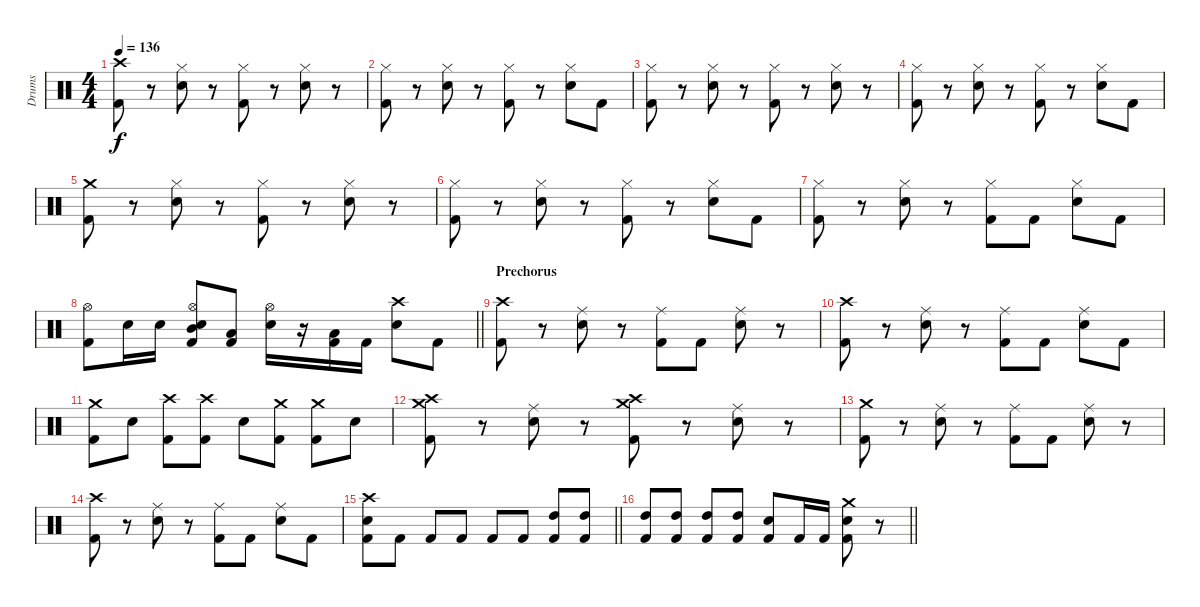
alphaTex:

\track ("Drums" "Drums") {instrument percussion}
\staff {score}
\articulation defaults
\ts (4 4)
\tempo 136
\clef neutral
\ks c
("Crash high (hit)" "Kick (hit) 2").8{dy f} r.8 ("Hi-Hat (closed)" "Electric Snare (hit)").8 r.8 ("Hi-Hat (closed)" "Kick (hit) 2").8 r.8 ("Hi-Hat (closed)" "Electric Snare (hit)").8 r.8 |
("Hi-Hat (closed)" "Kick (hit) 2").8 r.8 ("Hi-Hat (closed)" "Electric Snare (hit)").8 r.8 ("Hi-Hat (closed)" "Kick (hit) 2").8 r.8 ("Hi-Hat (closed)" "Electric Snare (hit)").8 "Kick (hit) 2".8 |
("Hi-Hat (closed)" "Kick (hit) 2").8 r.8 ("Hi-Hat (closed)" "Electric Snare (hit)").8 r.8 ("Hi-Hat (closed)" "Kick (hit) 2").8 r.8 ("Hi-Hat (closed)" "Electric Snare (hit)").8 r.8 |
("Hi-Hat (closed)" "Kick (hit) 2").8 r.8 ("Hi-Hat (closed)" "Electric Snare (hit)").8 r.8 ("Hi-Hat (closed)" "Kick (hit) 2").8 r.8 ("Hi-Hat (closed)" "Electric Snare (hit)").8 "Kick (hit) 2".8 |
("Crash medium (hit)" "Kick (hit) 2").8 r.8 ("Hi-Hat (closed)" "Electric Snare (hit)").8 r.8 ("Hi-Hat (closed)" "Kick (hit) 2").8 r.8 ("Hi-Hat (closed)" "Electric Snare (hit)").8 r.8 |
("Hi-Hat (closed)" "Kick (hit) 2").8 r.8 ("Hi-Hat (closed)" "Electric Snare (hit)").8 r.8 ("Hi-Hat (closed)" "Kick (hit) 2").8 r.8 ("Hi-Hat (closed)" "Electric Snare (hit)").8 "Kick (hit) 2".8 |
("Hi-Hat (closed)" "Kick (hit) 2").8 r.8 ("Hi-Hat (closed)" "Electric Snare (hit)").8 r.8 ("Hi-Hat (closed)" "Kick (hit) 2").8 "Kick (hit) 2".8 ("Hi-Hat (closed)" "Electric Snare (hit)").8 "Kick (hit) 2".8 |
\barLineRight lightlight
("Hi-Hat (open)" "Kick (hit) 2").8 "Electric Snare (hit)".16 "Electric Snare (hit)".16 ("Hi-Hat (open)" "Electric Snare (hit)" "Mid Tom (hit)" "Kick (hit) 2").8 ("Low Tom (hit)" "Kick (hit) 2").8 ("Hi-Hat (open)" "Electric Snare (hit)").16 r.16 ("Low Tom (hit)" "Kick (hit) 2").16 "Kick (hit) 2".16 ("Crash high (hit)" "Electric Snare (hit)").8 "Kick (hit) 2".8 |
\section ("" "Prechorus")
("Crash high (hit)" "Kick (hit) 2").8 r.8 ("Ride (middle)" "Electric Snare (hit)").8 r.8 ("Ride (middle)" "Kick (hit) 2").8 "Kick (hit) 2".8 ("Ride (middle)" "Electric Snare (hit)").8 r.8 |
("Crash high (hit)" "Kick (hit) 2").8 r.8 ("Ride (middle)" "Electric Snare (hit)").8 r.8 ("Ride (middle)" "Kick (hit) 2").8 "Kick (hit) 2".8 ("Ride (middle)" "Electric Snare (hit)").8 "Kick (hit) 2".8 |
("Crash medium (hit)" "Kick (hit) 2").8 "Electric Snare (hit)".8 ("Crash high (hit)" "Kick (hit) 2").8 ("Crash high (hit)" "Kick (hit) 2").8 "Electric Snare (hit)".8 ("Crash medium (hit)" "Kick (hit) 2").8 ("Crash medium (hit)" "Kick (hit) 2").8 "Electric Snare (hit)".8 |
("Crash high (hit)" "Crash medium (hit)" "Kick (hit) 2").8 r.8 ("Ride (middle)" "Electric Snare (hit)").8 r.8 ("Crash medium (hit)" "Crash high (hit)" "Kick (hit) 2").8 r.8 ("Ride (middle)" "Electric Snare (hit)").8 r.8 |
("Crash medium (hit)" "Kick (hit) 2").8 r.8 ("Ride (middle)" "Electric Snare (hit)").8 r.8 ("Ride (middle)" "Kick (hit) 2").8 "Kick (hit) 2".8 ("Ride (middle)" "Electric Snare (hit)").8 r.8 |
("Crash high (hit)" "Kick (hit) 2").8 r.8 ("Ride (middle)" "Electric Snare (hit)").8 r.8 ("Ride (middle)" "Kick (hit) 2").8 "Kick (hit) 2".8 ("Ride (middle)" "Electric Snare (hit)").8 "Kick (hit) 2".8 |
\barLineRight lightlight
("Crash high (hit)" "Electric Snare (hit)" "Kick (hit) 2").8 "Kick (hit) 2".8 "Kick (hit) 2".8 "Kick (hit) 2".8 "Kick (hit) 2".8 "Kick (hit) 2".8 ("High Tom (hit)" "Kick (hit) 2").8 ("High Tom (hit)" "Kick (hit) 2").8 |
\barLineRight lightlight
("High Tom (hit)" "Kick (hit) 2").8 ("High Tom (hit)" "Kick (hit) 2").8 ("High Tom (hit)" "Kick (hit) 2").8 ("High Tom (hit)" "Kick (hit) 2").8 ("Electric Snare (hit)" "Kick (hit) 2").8 "Kick (hit) 2".16 "Kick (hit) 2".16 ("Crash medium (hit)" "Electric Snare (hit)" "Kick (hit) 2").8 r.8
